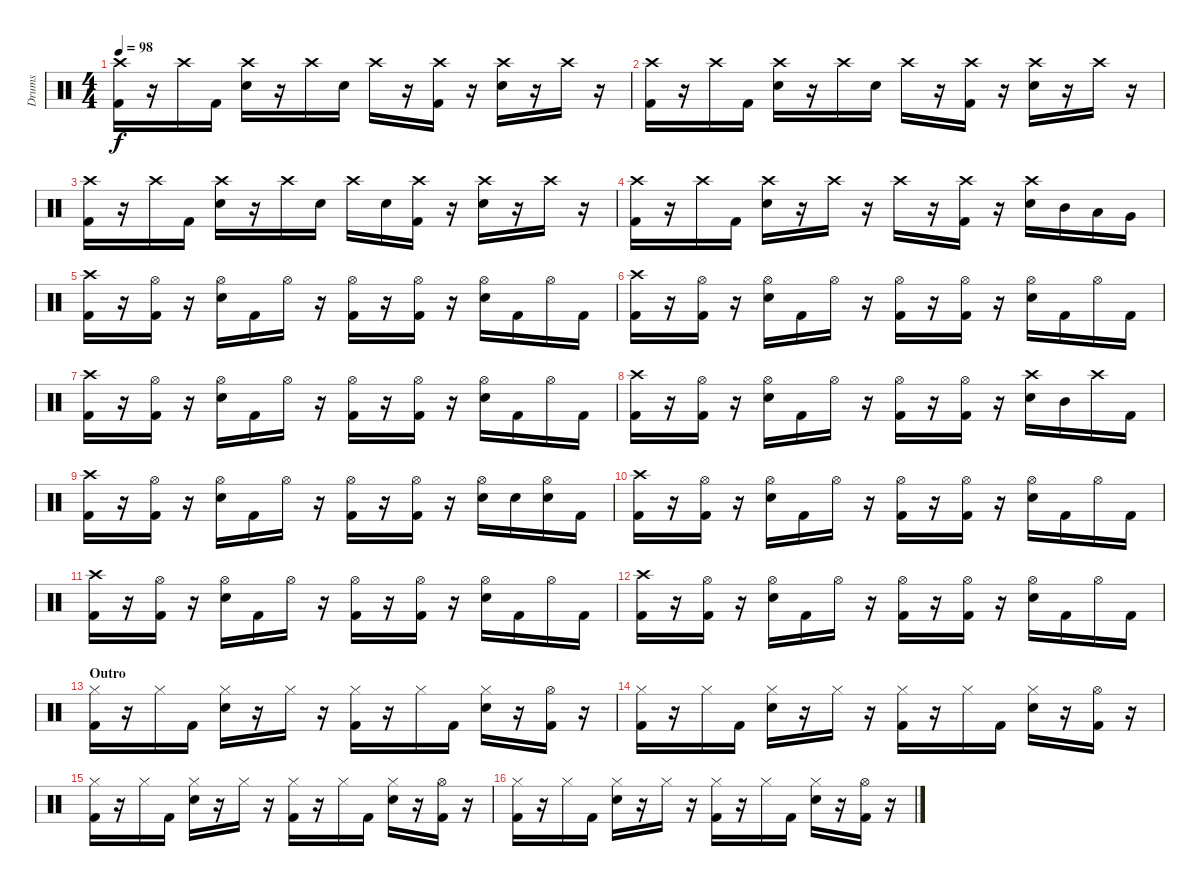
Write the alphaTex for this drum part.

\track ("Drums" "Drums") {instrument percussion}
\staff {score}
\articulation defaults
\ts (4 4)
\tempo 98
\clef neutral
\ks c
("Crash high (hit)" "Kick (hit) 2").16{dy f} r.16 "Crash high (hit)".16 "Kick (hit) 2".16 ("Crash high (hit)" "Snare (hit) 2").16 r.16 "Crash high (hit)".16 "Snare (hit) 2".16 "Crash high (hit)".16 r.16 ("Crash high (hit)" "Kick (hit) 2").16 r.16 ("Crash high (hit)" "Snare (hit) 2").16 r.16 "Crash high (hit)".16 r.16 |
("Crash high (hit)" "Kick (hit) 2").16 r.16 "Crash high (hit)".16 "Kick (hit) 2".16 ("Crash high (hit)" "Snare (hit) 2").16 r.16 "Crash high (hit)".16 "Snare (hit) 2".16 "Crash high (hit)".16 r.16 ("Crash high (hit)" "Kick (hit) 2").16 r.16 ("Crash high (hit)" "Snare (hit) 2").16 r.16 "Crash high (hit)".16 r.16 |
("Crash high (hit)" "Kick (hit) 2").16 r.16 "Crash high (hit)".16 "Kick (hit) 2".16 ("Crash high (hit)" "Snare (hit) 2").16 r.16 "Crash high (hit)".16 "Snare (hit) 2".16 "Crash high (hit)".16 "Snare (hit) 2".16 ("Crash high (hit)" "Kick (hit) 2").16 r.16 ("Crash high (hit)" "Snare (hit) 2").16 r.16 "Crash high (hit)".16 r.16 |
("Crash high (hit)" "Kick (hit) 2").16 r.16 "Crash high (hit)".16 "Kick (hit) 2".16 ("Crash high (hit)" "Snare (hit) 2").16 r.16 "Crash high (hit)".16 r.16 "Crash high (hit)".16 r.16 ("Crash high (hit)" "Kick (hit) 2").16 r.16 ("Crash high (hit)" "Snare (hit) 2").16 "Mid Tom (hit)".16 "Low Tom (hit)".16 "Very Low Tom (hit)".16 |
("Crash high (hit)" "Kick (hit) 2").16 r.16 ("Hi-Hat (open)" "Kick (hit) 2").16 r.16 ("Hi-Hat (open)" "Snare (hit) 2").16 "Kick (hit) 2".16 "Hi-Hat (open)".16 r.16 ("Hi-Hat (open)" "Kick (hit) 2").16 r.16 ("Hi-Hat (open)" "Kick (hit) 2").16 r.16 ("Hi-Hat (open)" "Snare (hit) 2").16 "Kick (hit) 2".16 "Hi-Hat (open)".16 "Kick (hit) 2".16 |
("Crash high (hit)" "Kick (hit) 2").16 r.16 ("Hi-Hat (open)" "Kick (hit) 2").16 r.16 ("Hi-Hat (open)" "Snare (hit) 2").16 "Kick (hit) 2".16 "Hi-Hat (open)".16 r.16 ("Hi-Hat (open)" "Kick (hit) 2").16 r.16 ("Hi-Hat (open)" "Kick (hit) 2").16 r.16 ("Hi-Hat (open)" "Snare (hit) 2").16 "Kick (hit) 2".16 "Hi-Hat (open)".16 "Kick (hit) 2".16 |
("Crash high (hit)" "Kick (hit) 2").16 r.16 ("Hi-Hat (open)" "Kick (hit) 2").16 r.16 ("Hi-Hat (open)" "Snare (hit) 2").16 "Kick (hit) 2".16 "Hi-Hat (open)".16 r.16 ("Hi-Hat (open)" "Kick (hit) 2").16 r.16 ("Hi-Hat (open)" "Kick (hit) 2").16 r.16 ("Hi-Hat (open)" "Snare (hit) 2").16 "Kick (hit) 2".16 "Hi-Hat (open)".16 "Kick (hit) 2".16 |
("Crash high (hit)" "Kick (hit) 2").16 r.16 ("Hi-Hat (open)" "Kick (hit) 2").16 r.16 ("Hi-Hat (open)" "Snare (hit) 2").16 "Kick (hit) 2".16 "Hi-Hat (open)".16 r.16 ("Hi-Hat (open)" "Kick (hit) 2").16 r.16 ("Hi-Hat (open)" "Kick (hit) 2").16 r.16 ("Crash high (hit)" "Snare (hit) 2").16 "Mid Tom (hit)".16 "Crash high (hit)".16 "Kick (hit) 2".16 |
("Crash high (hit)" "Kick (hit) 2").16 r.16 ("Hi-Hat (open)" "Kick (hit) 2").16 r.16 ("Hi-Hat (open)" "Snare (hit) 2").16 "Kick (hit) 2".16 "Hi-Hat (open)".16 r.16 ("Hi-Hat (open)" "Kick (hit) 2").16 r.16 ("Hi-Hat (open)" "Kick (hit) 2").16 r.16 ("Hi-Hat (open)" "Snare (hit) 2").16 "Snare (hit) 2".16 ("Hi-Hat (open)" "Snare (hit) 2").16 "Kick (hit) 2".16 |
("Crash high (hit)" "Kick (hit) 2").16 r.16 ("Hi-Hat (open)" "Kick (hit) 2").16 r.16 ("Hi-Hat (open)" "Snare (hit) 2").16 "Kick (hit) 2".16 "Hi-Hat (open)".16 r.16 ("Hi-Hat (open)" "Kick (hit) 2").16 r.16 ("Hi-Hat (open)" "Kick (hit) 2").16 r.16 ("Hi-Hat (open)" "Snare (hit) 2").16 "Kick (hit) 2".16 "Hi-Hat (open)".16 "Kick (hit) 2".16 |
("Crash high (hit)" "Kick (hit) 2").16 r.16 ("Hi-Hat (open)" "Kick (hit) 2").16 r.16 ("Hi-Hat (open)" "Snare (hit) 2").16 "Kick (hit) 2".16 "Hi-Hat (open)".16 r.16 ("Hi-Hat (open)" "Kick (hit) 2").16 r.16 ("Hi-Hat (open)" "Kick (hit) 2").16 r.16 ("Hi-Hat (open)" "Snare (hit) 2").16 "Kick (hit) 2".16 "Hi-Hat (open)".16 "Kick (hit) 2".16 |
("Crash high (hit)" "Kick (hit) 2").16 r.16 ("Hi-Hat (open)" "Kick (hit) 2").16 r.16 ("Hi-Hat (open)" "Snare (hit) 2").16 "Kick (hit) 2".16 "Hi-Hat (open)".16 r.16 ("Hi-Hat (open)" "Kick (hit) 2").16 r.16 ("Hi-Hat (open)" "Kick (hit) 2").16 r.16 ("Hi-Hat (open)" "Snare (hit) 2").16 "Kick (hit) 2".16 "Hi-Hat (open)".16 "Kick (hit) 2".16 |
\section ("" "Outro")
("Hi-Hat (closed)" "Kick (hit) 2").16 r.16 "Hi-Hat (closed)".16 "Kick (hit) 2".16 ("Hi-Hat (closed)" "Snare (hit) 2").16 r.16 "Hi-Hat (closed)".16 r.16 ("Hi-Hat (closed)" "Kick (hit) 2").16 r.16 "Hi-Hat (closed)".16 "Kick (hit) 2".16 ("Hi-Hat (closed)" "Snare (hit) 2").16 r.16 ("Hi-Hat (open)" "Kick (hit) 2").16 r.16 |
("Hi-Hat (closed)" "Kick (hit) 2").16 r.16 "Hi-Hat (closed)".16 "Kick (hit) 2".16 ("Hi-Hat (closed)" "Snare (hit) 2").16 r.16 "Hi-Hat (closed)".16 r.16 ("Hi-Hat (closed)" "Kick (hit) 2").16 r.16 "Hi-Hat (closed)".16 "Kick (hit) 2".16 ("Hi-Hat (closed)" "Snare (hit) 2").16 r.16 ("Hi-Hat (open)" "Kick (hit) 2").16 r.16 |
("Hi-Hat (closed)" "Kick (hit) 2").16 r.16 "Hi-Hat (closed)".16 "Kick (hit) 2".16 ("Hi-Hat (closed)" "Snare (hit) 2").16 r.16 "Hi-Hat (closed)".16 r.16 ("Hi-Hat (closed)" "Kick (hit) 2").16 r.16 "Hi-Hat (closed)".16 "Kick (hit) 2".16 ("Hi-Hat (closed)" "Snare (hit) 2").16 r.16 ("Hi-Hat (open)" "Kick (hit) 2").16 r.16 |
("Hi-Hat (closed)" "Kick (hit) 2").16 r.16 "Hi-Hat (closed)".16 "Kick (hit) 2".16 ("Hi-Hat (closed)" "Snare (hit) 2").16 r.16 "Hi-Hat (closed)".16 r.16 ("Hi-Hat (closed)" "Kick (hit) 2").16 r.16 "Hi-Hat (closed)".16 "Kick (hit) 2".16 ("Hi-Hat (closed)" "Snare (hit) 2").16 r.16 ("Hi-Hat (open)" "Kick (hit) 2").16 r.16
